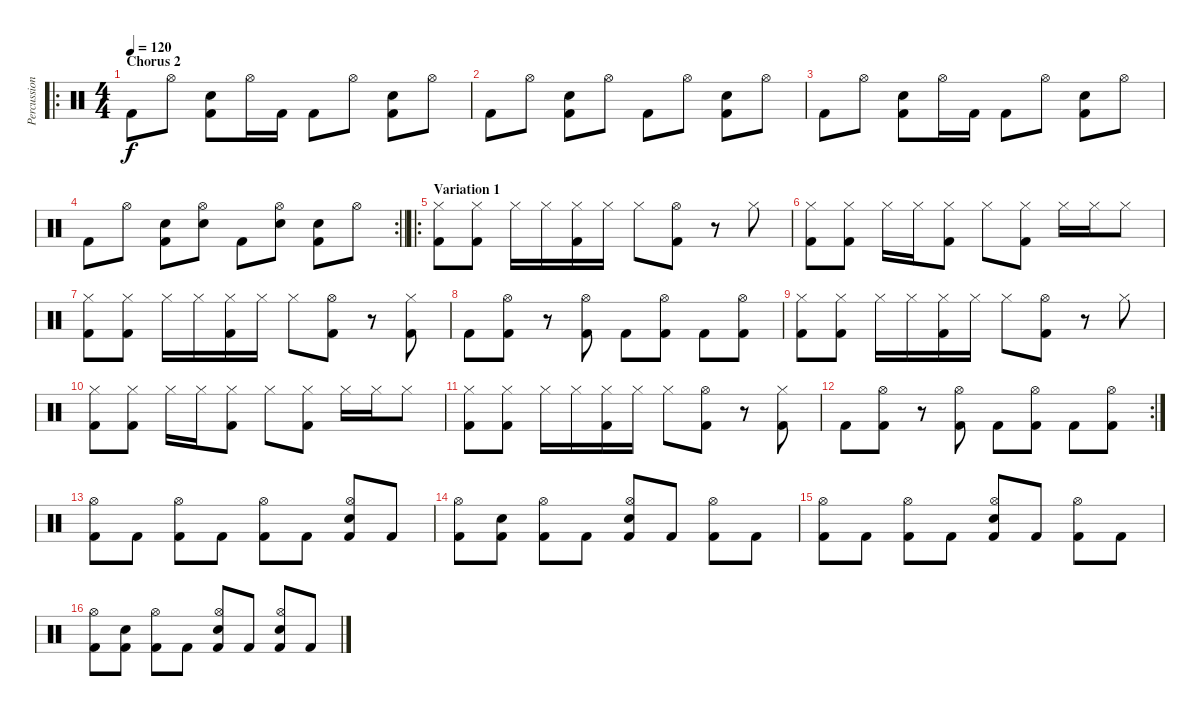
\track ("Percussion" "Percussion") {instrument percussion}
\staff {score}
\articulation defaults
\ro
\ts (4 4)
\section ("" "Chorus 2")
\tempo 120
\clef neutral
\ks c "Kick (hit) 2".8{dy f} "Hi-Hat (open)".8
("Electric Snare (hit)" "Kick (hit) 2").8 "Hi-Hat (open)".16 "Kick (hit) 2".16 "Kick (hit) 2".8 "Hi-Hat (open)".8 ("Electric Snare (hit)" "Kick (hit) 2").8 "Hi-Hat (open)".8 |
"Kick (hit) 2".8 "Hi-Hat (open)".8 ("Electric Snare (hit)" "Kick (hit) 2").8 "Hi-Hat (open)".8 "Kick (hit) 2".8 "Hi-Hat (open)".8 ("Electric Snare (hit)" "Kick (hit) 2").8 "Hi-Hat (open)".8 |
"Kick (hit) 2".8 "Hi-Hat (open)".8 ("Electric Snare (hit)" "Kick (hit) 2").8 "Hi-Hat (open)".16 "Kick (hit) 2".16 "Kick (hit) 2".8 "Hi-Hat (open)".8 ("Electric Snare (hit)" "Kick (hit) 2").8 "Hi-Hat (open)".8 |
\rc 2
\barLineRight lightlight "Kick (hit) 2".8 "Hi-Hat (open)".8
("Electric Snare (hit)" "Kick (hit) 2").8 ("Hi-Hat (open)" "Electric Snare (hit)").8 "Kick (hit) 2".8 ("Hi-Hat (open)" "Electric Snare (hit)").8 ("Electric Snare (hit)" "Kick (hit) 2").8 "Hi-Hat (open)".8 |
\ro
\section ("" "Variation 1")
("Hi-Hat (closed)" "Kick (hit) 2").8 ("Hi-Hat (closed)" "Kick (hit) 2").8 "Hi-Hat (closed)".16 "Hi-Hat (closed)".16 ("Hi-Hat (closed)" "Kick (hit) 2").16 "Hi-Hat (closed)".16 "Hi-Hat (closed)".8 ("Hi-Hat (open)" "Kick (hit) 2").8 r.8 "Hi-Hat (closed)".8 |
("Hi-Hat (closed)" "Kick (hit) 2").8 ("Hi-Hat (closed)" "Kick (hit) 2").8 "Hi-Hat (closed)".16 "Hi-Hat (closed)".16 ("Hi-Hat (closed)" "Kick (hit) 2").8 "Hi-Hat (closed)".8 ("Hi-Hat (closed)" "Kick (hit) 2").8 "Hi-Hat (closed)".16 "Hi-Hat (closed)".16 "Hi-Hat (closed)".8 |
("Hi-Hat (closed)" "Kick (hit) 2").8 ("Hi-Hat (closed)" "Kick (hit) 2").8 "Hi-Hat (closed)".16 "Hi-Hat (closed)".16 ("Hi-Hat (closed)" "Kick (hit) 2").16 "Hi-Hat (closed)".16 "Hi-Hat (closed)".8 ("Hi-Hat (open)" "Kick (hit) 2").8 r.8 ("Hi-Hat (closed)" "Kick (hit) 2").8 |
"Kick (hit) 2".8 ("Hi-Hat (open)" "Kick (hit) 2").8 r.8 ("Hi-Hat (open)" "Kick (hit) 2").8 "Kick (hit) 2".8 ("Hi-Hat (open)" "Kick (hit) 2").8 "Kick (hit) 2".8 ("Hi-Hat (open)" "Kick (hit) 2").8 |
("Hi-Hat (closed)" "Kick (hit) 2").8 ("Hi-Hat (closed)" "Kick (hit) 2").8 "Hi-Hat (closed)".16 "Hi-Hat (closed)".16 ("Hi-Hat (closed)" "Kick (hit) 2").16 "Hi-Hat (closed)".16 "Hi-Hat (closed)".8 ("Hi-Hat (open)" "Kick (hit) 2").8 r.8 "Hi-Hat (closed)".8 |
("Hi-Hat (closed)" "Kick (hit) 2").8 ("Hi-Hat (closed)" "Kick (hit) 2").8 "Hi-Hat (closed)".16 "Hi-Hat (closed)".16 ("Hi-Hat (closed)" "Kick (hit) 2").8 "Hi-Hat (closed)".8 ("Hi-Hat (closed)" "Kick (hit) 2").8 "Hi-Hat (closed)".16 "Hi-Hat (closed)".16 "Hi-Hat (closed)".8 |
("Hi-Hat (closed)" "Kick (hit) 2").8 ("Hi-Hat (closed)" "Kick (hit) 2").8 "Hi-Hat (closed)".16 "Hi-Hat (closed)".16 ("Hi-Hat (closed)" "Kick (hit) 2").16 "Hi-Hat (closed)".16 "Hi-Hat (closed)".8 ("Hi-Hat (open)" "Kick (hit) 2").8 r.8 ("Hi-Hat (closed)" "Kick (hit) 2").8 |
\rc 2 "Kick (hit) 2".8
("Hi-Hat (open)" "Kick (hit) 2").8 r.8 ("Hi-Hat (open)" "Kick (hit) 2").8 "Kick (hit) 2".8 ("Hi-Hat (open)" "Kick (hit) 2").8 "Kick (hit) 2".8 ("Hi-Hat (open)" "Kick (hit) 2").8 |
("Hi-Hat (open)" "Kick (hit) 2").8 "Kick (hit) 2".8 ("Hi-Hat (open)" "Kick (hit) 2").8 "Kick (hit) 2".8 ("Hi-Hat (open)" "Kick (hit) 2").8 "Kick (hit) 2".8 ("Hi-Hat (open)" "Electric Snare (hit)" "Kick (hit) 2").8 "Kick (hit) 2".8 |
("Hi-Hat (open)" "Kick (hit) 2").8 ("Electric Snare (hit)" "Kick (hit) 2").8 ("Hi-Hat (open)" "Kick (hit) 2").8 "Kick (hit) 2".8 ("Hi-Hat (open)" "Electric Snare (hit)" "Kick (hit) 2").8 "Kick (hit) 2".8 ("Hi-Hat (open)" "Kick (hit) 2").8 "Kick (hit) 2".8 |
("Hi-Hat (open)" "Kick (hit) 2").8 "Kick (hit) 2".8 ("Hi-Hat (open)" "Kick (hit) 2").8 "Kick (hit) 2".8 ("Hi-Hat (open)" "Electric Snare (hit)" "Kick (hit) 2").8 "Kick (hit) 2".8 ("Hi-Hat (open)" "Kick (hit) 2").8 "Kick (hit) 2".8 |
("Hi-Hat (open)" "Kick (hit) 2").8 ("Electric Snare (hit)" "Kick (hit) 2").8 ("Hi-Hat (open)" "Kick (hit) 2").8 "Kick (hit) 2".8 ("Hi-Hat (open)" "Electric Snare (hit)" "Kick (hit) 2").8 "Kick (hit) 2".8 ("Hi-Hat (open)" "Electric Snare (hit)" "Kick (hit) 2").8 "Kick (hit) 2".8
